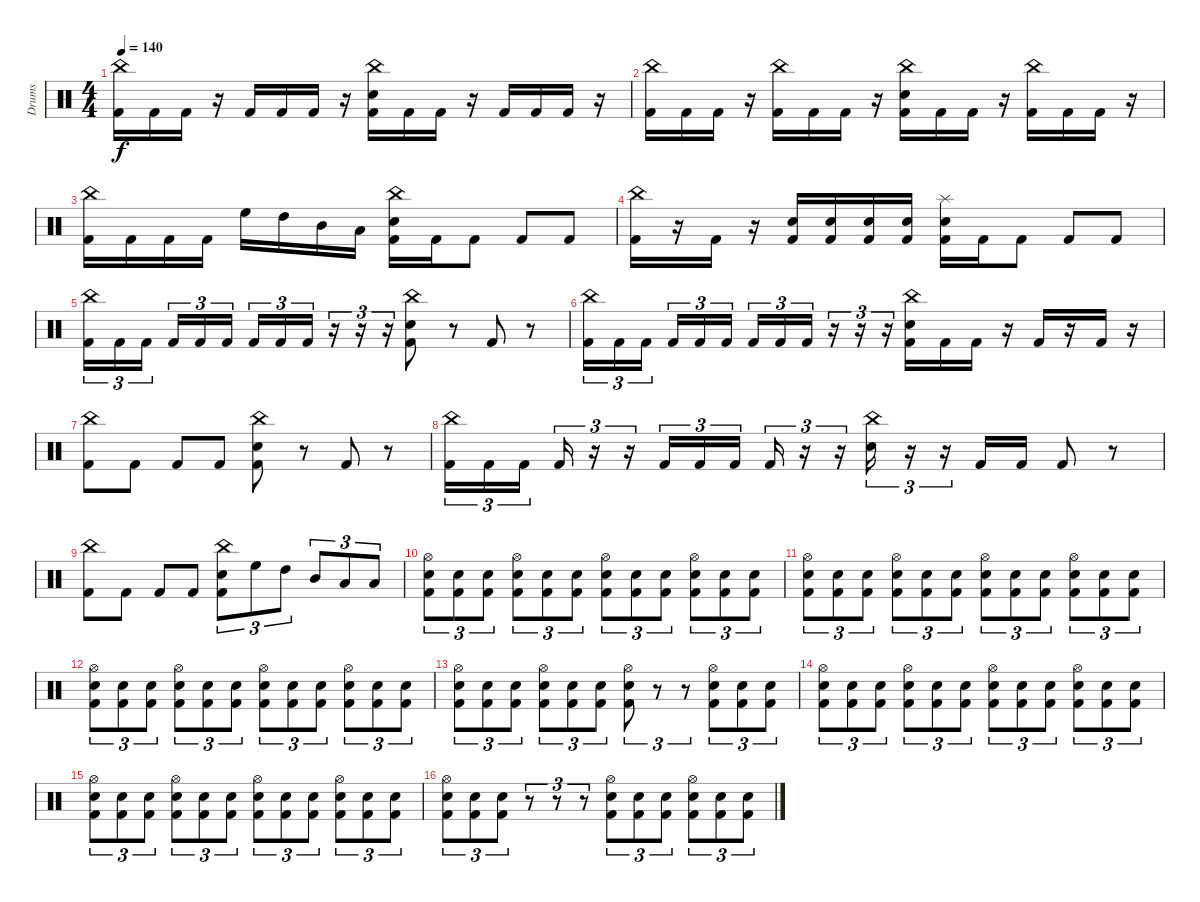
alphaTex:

\track ("Drums" "Drums") {instrument percussion}
\staff {score}
\articulation defaults
\ts (4 4)
\tempo 140
\clef neutral
\ks c
("China (hit)" "Kick (hit) 2").16{dy f} "Kick (hit) 2".16 "Kick (hit) 2".16 r.16 "Kick (hit) 2".16 "Kick (hit) 2".16 "Kick (hit) 2".16 r.16 ("China (hit)" "Snare (hit) 2" "Kick (hit) 2").16 "Kick (hit) 2".16 "Kick (hit) 2".16 r.16 "Kick (hit) 2".16 "Kick (hit) 2".16 "Kick (hit) 2".16 r.16 |
("China (hit)" "Kick (hit) 2").16 "Kick (hit) 2".16 "Kick (hit) 2".16 r.16 ("China (hit)" "Kick (hit) 2").16 "Kick (hit) 2".16 "Kick (hit) 2".16 r.16 ("China (hit)" "Snare (hit) 2" "Kick (hit) 2").16 "Kick (hit) 2".16 "Kick (hit) 2".16 r.16 ("China (hit)" "Kick (hit) 2").16 "Kick (hit) 2".16 "Kick (hit) 2".16 r.16 |
("China (hit)" "Kick (hit) 2").16 "Kick (hit) 2".16 "Kick (hit) 2".16 "Kick (hit) 2".16 "High Floor Tom (hit)".16 "High Tom (hit)".16 "Mid Tom (hit)".16 "Low Tom (hit)".16 ("China (hit)" "Snare (hit) 2" "Kick (hit) 2").16 "Kick (hit) 2".16 "Kick (hit) 2".8 "Kick (hit) 2".8 "Kick (hit) 2".8 |
("China (hit)" "Kick (hit) 2").16 r.16 "Kick (hit) 2".16 r.16 ("Snare (hit) 2" "Kick (hit) 2").16 ("Snare (hit) 2" "Kick (hit) 2").16 ("Snare (hit) 2" "Kick (hit) 2").16 ("Snare (hit) 2" "Kick (hit) 2").16 ("Splash (hit)" "Snare (hit) 2" "Kick (hit) 2").16 "Kick (hit) 2".16 "Kick (hit) 2".8 "Kick (hit) 2".8 "Kick (hit) 2".8 |
("China (hit)" "Kick (hit) 2").16{tu (3 2)} "Kick (hit) 2".16{tu (3 2)} "Kick (hit) 2".16{tu (3 2) beam splitsecondary} "Kick (hit) 2".16{tu (3 2)} "Kick (hit) 2".16{tu (3 2)} "Kick (hit) 2".16{tu (3 2)} "Kick (hit) 2".16{tu (3 2)} "Kick (hit) 2".16{tu (3 2)} "Kick (hit) 2".16{tu (3 2)} r.16{tu (3 2)} r.16{tu (3 2)} r.16{tu (3 2)} ("China (hit)" "Snare (hit) 2" "Kick (hit) 2").8 r.8 "Kick (hit) 2".8 r.8 |
("China (hit)" "Kick (hit) 2").16{tu (3 2)} "Kick (hit) 2".16{tu (3 2)} "Kick (hit) 2".16{tu (3 2) beam splitsecondary} "Kick (hit) 2".16{tu (3 2)} "Kick (hit) 2".16{tu (3 2)} "Kick (hit) 2".16{tu (3 2)} "Kick (hit) 2".16{tu (3 2)} "Kick (hit) 2".16{tu (3 2)} "Kick (hit) 2".16{tu (3 2)} r.16{tu (3 2)} r.16{tu (3 2)} r.16{tu (3 2)} ("China (hit)" "Snare (hit) 2" "Kick (hit) 2").16 "Kick (hit) 2".16 "Kick (hit) 2".16 r.16 "Kick (hit) 2".16 r.16 "Kick (hit) 2".16 r.16 |
("China (hit)" "Kick (hit) 2").8 "Kick (hit) 2".8 "Kick (hit) 2".8 "Kick (hit) 2".8 ("China (hit)" "Snare (hit) 2" "Kick (hit) 2").8 r.8 "Kick (hit) 2".8 r.8 |
("China (hit)" "Kick (hit) 2").16{tu (3 2)} "Kick (hit) 2".16{tu (3 2)} "Kick (hit) 2".16{tu (3 2) beam splitsecondary} "Kick (hit) 2".16{tu (3 2)} r.16{tu (3 2)} r.16{tu (3 2)} "Kick (hit) 2".16{tu (3 2)} "Kick (hit) 2".16{tu (3 2)} "Kick (hit) 2".16{tu (3 2) beam splitsecondary} "Kick (hit) 2".16{tu (3 2)} r.16{tu (3 2)} r.16{tu (3 2)} ("China (hit)" "Snare (hit) 2").16{tu (3 2)} r.16{tu (3 2)} r.16{tu (3 2)} "Kick (hit) 2".16 "Kick (hit) 2".16 "Kick (hit) 2".8 r.8 |
("China (hit)" "Kick (hit) 2").8 "Kick (hit) 2".8 "Kick (hit) 2".8 "Kick (hit) 2".8 ("China (hit)" "Snare (hit) 2" "Kick (hit) 2").8{tu (3 2)} "High Floor Tom (hit)".8{tu (3 2)} "High Tom (hit)".8{tu (3 2)} "Mid Tom (hit)".8{tu (3 2)} "Low Tom (hit)".8{tu (3 2)} "Low Tom (hit)".8{tu (3 2)} |
("Hi-Hat (open)" "Snare (hit) 2" "Kick (hit) 2").8{tu (3 2)} ("Snare (hit) 2" "Kick (hit) 2").8{tu (3 2)} ("Snare (hit) 2" "Kick (hit) 2").8{tu (3 2)} ("Hi-Hat (open)" "Snare (hit) 2" "Kick (hit) 2").8{tu (3 2)} ("Snare (hit) 2" "Kick (hit) 2").8{tu (3 2)} ("Snare (hit) 2" "Kick (hit) 2").8{tu (3 2)} ("Hi-Hat (open)" "Snare (hit) 2" "Kick (hit) 2").8{tu (3 2)} ("Snare (hit) 2" "Kick (hit) 2").8{tu (3 2)} ("Snare (hit) 2" "Kick (hit) 2").8{tu (3 2)} ("Hi-Hat (open)" "Snare (hit) 2" "Kick (hit) 2").8{tu (3 2)} ("Snare (hit) 2" "Kick (hit) 2").8{tu (3 2)} ("Snare (hit) 2" "Kick (hit) 2").8{tu (3 2)} |
("Hi-Hat (open)" "Snare (hit) 2" "Kick (hit) 2").8{tu (3 2)} ("Snare (hit) 2" "Kick (hit) 2").8{tu (3 2)} ("Snare (hit) 2" "Kick (hit) 2").8{tu (3 2)} ("Hi-Hat (open)" "Snare (hit) 2" "Kick (hit) 2").8{tu (3 2)} ("Snare (hit) 2" "Kick (hit) 2").8{tu (3 2)} ("Snare (hit) 2" "Kick (hit) 2").8{tu (3 2)} ("Hi-Hat (open)" "Snare (hit) 2" "Kick (hit) 2").8{tu (3 2)} ("Snare (hit) 2" "Kick (hit) 2").8{tu (3 2)} ("Snare (hit) 2" "Kick (hit) 2").8{tu (3 2)} ("Hi-Hat (open)" "Snare (hit) 2" "Kick (hit) 2").8{tu (3 2)} ("Snare (hit) 2" "Kick (hit) 2").8{tu (3 2)} ("Snare (hit) 2" "Kick (hit) 2").8{tu (3 2)} |
("Hi-Hat (open)" "Snare (hit) 2" "Kick (hit) 2").8{tu (3 2)} ("Snare (hit) 2" "Kick (hit) 2").8{tu (3 2)} ("Snare (hit) 2" "Kick (hit) 2").8{tu (3 2)} ("Hi-Hat (open)" "Snare (hit) 2" "Kick (hit) 2").8{tu (3 2)} ("Snare (hit) 2" "Kick (hit) 2").8{tu (3 2)} ("Snare (hit) 2" "Kick (hit) 2").8{tu (3 2)} ("Hi-Hat (open)" "Snare (hit) 2" "Kick (hit) 2").8{tu (3 2)} ("Snare (hit) 2" "Kick (hit) 2").8{tu (3 2)} ("Snare (hit) 2" "Kick (hit) 2").8{tu (3 2)} ("Hi-Hat (open)" "Snare (hit) 2" "Kick (hit) 2").8{tu (3 2)} ("Snare (hit) 2" "Kick (hit) 2").8{tu (3 2)} ("Snare (hit) 2" "Kick (hit) 2").8{tu (3 2)} |
("Hi-Hat (open)" "Snare (hit) 2" "Kick (hit) 2").8{tu (3 2)} ("Snare (hit) 2" "Kick (hit) 2").8{tu (3 2)} ("Snare (hit) 2" "Kick (hit) 2").8{tu (3 2)} ("Hi-Hat (open)" "Snare (hit) 2" "Kick (hit) 2").8{tu (3 2)} ("Snare (hit) 2" "Kick (hit) 2").8{tu (3 2)} ("Snare (hit) 2" "Kick (hit) 2").8{tu (3 2)} ("Hi-Hat (open)" "Snare (hit) 2" "Kick (hit) 2").8{tu (3 2)} r.8{tu (3 2)} r.8{tu (3 2)} ("Hi-Hat (open)" "Snare (hit) 2" "Kick (hit) 2").8{tu (3 2)} ("Snare (hit) 2" "Kick (hit) 2").8{tu (3 2)} ("Snare (hit) 2" "Kick (hit) 2").8{tu (3 2)} |
("Hi-Hat (open)" "Snare (hit) 2" "Kick (hit) 2").8{tu (3 2)} ("Snare (hit) 2" "Kick (hit) 2").8{tu (3 2)} ("Snare (hit) 2" "Kick (hit) 2").8{tu (3 2)} ("Hi-Hat (open)" "Snare (hit) 2" "Kick (hit) 2").8{tu (3 2)} ("Snare (hit) 2" "Kick (hit) 2").8{tu (3 2)} ("Snare (hit) 2" "Kick (hit) 2").8{tu (3 2)} ("Hi-Hat (open)" "Snare (hit) 2" "Kick (hit) 2").8{tu (3 2)} ("Snare (hit) 2" "Kick (hit) 2").8{tu (3 2)} ("Snare (hit) 2" "Kick (hit) 2").8{tu (3 2)} ("Hi-Hat (open)" "Snare (hit) 2" "Kick (hit) 2").8{tu (3 2)} ("Snare (hit) 2" "Kick (hit) 2").8{tu (3 2)} ("Snare (hit) 2" "Kick (hit) 2").8{tu (3 2)} |
("Hi-Hat (open)" "Snare (hit) 2" "Kick (hit) 2").8{tu (3 2)} ("Snare (hit) 2" "Kick (hit) 2").8{tu (3 2)} ("Snare (hit) 2" "Kick (hit) 2").8{tu (3 2)} ("Hi-Hat (open)" "Snare (hit) 2" "Kick (hit) 2").8{tu (3 2)} ("Snare (hit) 2" "Kick (hit) 2").8{tu (3 2)} ("Snare (hit) 2" "Kick (hit) 2").8{tu (3 2)} ("Hi-Hat (open)" "Snare (hit) 2" "Kick (hit) 2").8{tu (3 2)} ("Snare (hit) 2" "Kick (hit) 2").8{tu (3 2)} ("Snare (hit) 2" "Kick (hit) 2").8{tu (3 2)} ("Hi-Hat (open)" "Snare (hit) 2" "Kick (hit) 2").8{tu (3 2)} ("Snare (hit) 2" "Kick (hit) 2").8{tu (3 2)} ("Snare (hit) 2" "Kick (hit) 2").8{tu (3 2)} |
("Hi-Hat (open)" "Snare (hit) 2" "Kick (hit) 2").8{tu (3 2)} ("Snare (hit) 2" "Kick (hit) 2").8{tu (3 2)} ("Snare (hit) 2" "Kick (hit) 2").8{tu (3 2)} r.8{tu (3 2)} r.8{tu (3 2)} r.8{tu (3 2)} ("Hi-Hat (open)" "Snare (hit) 2" "Kick (hit) 2").8{tu (3 2)} ("Snare (hit) 2" "Kick (hit) 2").8{tu (3 2)} ("Snare (hit) 2" "Kick (hit) 2").8{tu (3 2)} ("Hi-Hat (open)" "Snare (hit) 2" "Kick (hit) 2").8{tu (3 2)} ("Snare (hit) 2" "Kick (hit) 2").8{tu (3 2)} ("Snare (hit) 2" "Kick (hit) 2").8{tu (3 2)}
